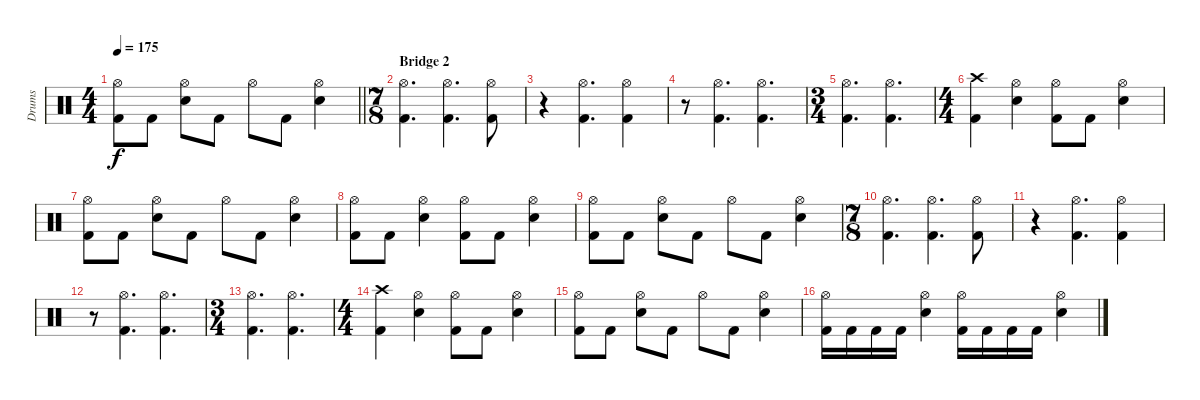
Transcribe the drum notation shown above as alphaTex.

\track ("Drums" "Drums") {instrument percussion}
\staff {score}
\articulation defaults
\ts (4 4)
\tempo 175
\clef neutral
\barLineRight lightlight
\ks c
("Hi-Hat (open)" "Kick (hit) 2").8{dy f} "Kick (hit) 2".8 ("Hi-Hat (open)" "Electric Snare (hit)").8 "Kick (hit) 2".8 "Hi-Hat (open)".8 "Kick (hit) 2".8 ("Hi-Hat (open)" "Electric Snare (hit)").4 |
\ts (7 8)
\section ("" "Bridge 2")
("Hi-Hat (open)" "Kick (hit) 2").4{d} ("Hi-Hat (open)" "Kick (hit) 2").4{d} ("Hi-Hat (open)" "Kick (hit) 2").8 |
r.4 ("Hi-Hat (open)" "Kick (hit) 2").4{d} ("Hi-Hat (open)" "Kick (hit) 2").4 |
r.8 ("Hi-Hat (open)" "Kick (hit) 2").4{d} ("Hi-Hat (open)" "Kick (hit) 2").4{d} |
\ts (3 4)
("Hi-Hat (open)" "Kick (hit) 2").4{d} ("Hi-Hat (open)" "Kick (hit) 2").4{d} |
\ts (4 4)
("Crash high (hit)" "Kick (hit) 2").4 ("Hi-Hat (open)" "Electric Snare (hit)").4 ("Hi-Hat (open)" "Kick (hit) 2").8 "Kick (hit) 2".8 ("Hi-Hat (open)" "Electric Snare (hit)").4 |
("Hi-Hat (open)" "Kick (hit) 2").8 "Kick (hit) 2".8 ("Hi-Hat (open)" "Electric Snare (hit)").8 "Kick (hit) 2".8 "Hi-Hat (open)".8 "Kick (hit) 2".8 ("Hi-Hat (open)" "Electric Snare (hit)").4 |
("Hi-Hat (open)" "Kick (hit) 2").8 "Kick (hit) 2".8 ("Hi-Hat (open)" "Electric Snare (hit)").4 ("Hi-Hat (open)" "Kick (hit) 2").8 "Kick (hit) 2".8 ("Hi-Hat (open)" "Electric Snare (hit)").4 |
("Hi-Hat (open)" "Kick (hit) 2").8 "Kick (hit) 2".8 ("Hi-Hat (open)" "Electric Snare (hit)").8 "Kick (hit) 2".8 "Hi-Hat (open)".8 "Kick (hit) 2".8 ("Hi-Hat (open)" "Electric Snare (hit)").4 |
\ts (7 8)
("Hi-Hat (open)" "Kick (hit) 2").4{d} ("Hi-Hat (open)" "Kick (hit) 2").4{d} ("Hi-Hat (open)" "Kick (hit) 2").8 |
r.4 ("Hi-Hat (open)" "Kick (hit) 2").4{d} ("Hi-Hat (open)" "Kick (hit) 2").4 |
r.8 ("Hi-Hat (open)" "Kick (hit) 2").4{d} ("Hi-Hat (open)" "Kick (hit) 2").4{d} |
\ts (3 4)
("Hi-Hat (open)" "Kick (hit) 2").4{d} ("Hi-Hat (open)" "Kick (hit) 2").4{d} |
\ts (4 4)
("Crash high (hit)" "Kick (hit) 2").4 ("Hi-Hat (open)" "Electric Snare (hit)").4 ("Hi-Hat (open)" "Kick (hit) 2").8 "Kick (hit) 2".8 ("Hi-Hat (open)" "Electric Snare (hit)").4 |
("Hi-Hat (open)" "Kick (hit) 2").8 "Kick (hit) 2".8 ("Hi-Hat (open)" "Electric Snare (hit)").8 "Kick (hit) 2".8 "Hi-Hat (open)".8 "Kick (hit) 2".8 ("Hi-Hat (open)" "Electric Snare (hit)").4 |
("Hi-Hat (open)" "Kick (hit) 2").16 "Kick (hit) 2".16 "Kick (hit) 2".16 "Kick (hit) 2".16 ("Hi-Hat (open)" "Electric Snare (hit)").4 ("Hi-Hat (open)" "Kick (hit) 2").16 "Kick (hit) 2".16 "Kick (hit) 2".16 "Kick (hit) 2".16 ("Hi-Hat (open)" "Electric Snare (hit)").4
